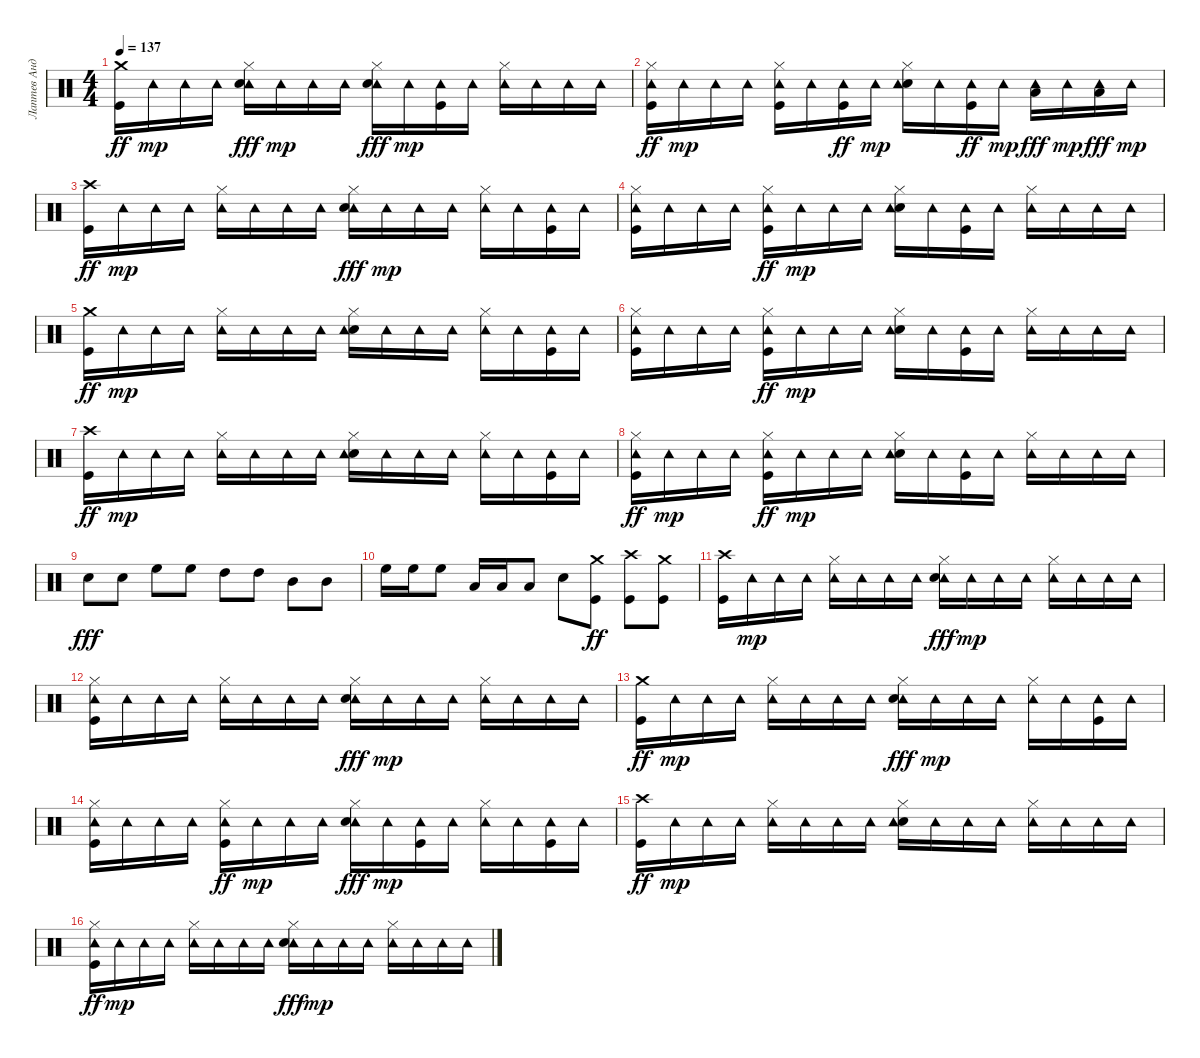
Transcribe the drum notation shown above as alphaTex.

\track ("Лаптев Андрей" "Лаптев Анд") {instrument percussion}
\staff {score}
\articulation defaults
\ts (4 4)
\tempo 137
\clef neutral
\ks c
("Crash medium (hit)" "Kick (hit)").16{dy ff} "Tambourine (hit)".16{dy mp} "Tambourine (hit)".16 "Tambourine (hit)".16 ("Tambourine (hit)" "Snare (hit) 2" "Hi-Hat (closed)").16{dy fff} "Tambourine (hit)".16{dy mp} "Tambourine (hit)".16 "Tambourine (hit)".16 ("Tambourine (hit)" "Snare (hit) 2" "Hi-Hat (closed)").16{dy fff} "Tambourine (hit)".16{dy mp} ("Kick (hit)" "Tambourine (hit)").16 "Tambourine (hit)".16 ("Tambourine (hit)" "Hi-Hat (closed)").16 "Tambourine (hit)".16 "Tambourine (hit)".16 "Tambourine (hit)".16 |
("Tambourine (hit)" "Kick (hit)" "Hi-Hat (closed)").16{dy ff} "Tambourine (hit)".16{dy mp} "Tambourine (hit)".16 "Tambourine (hit)".16 ("Kick (hit)" "Tambourine (hit)" "Hi-Hat (closed)").16 "Tambourine (hit)".16 ("Tambourine (hit)" "Kick (hit)").16{dy ff} "Tambourine (hit)".16{dy mp} ("Snare (hit) 2" "Tambourine (hit)" "Hi-Hat (closed)").16 "Tambourine (hit)".16 ("Tambourine (hit)" "Kick (hit)").16{dy ff} "Tambourine (hit)".16{dy mp} ("Tambourine (hit)" "Low Tom (hit)").16{dy fff} "Tambourine (hit)".16{dy mp} ("Tambourine (hit)" "Low Tom (hit)").16{dy fff} "Tambourine (hit)".16{dy mp} |
("Kick (hit)" "Crash high (hit)").16{dy ff} "Tambourine (hit)".16{dy mp} "Tambourine (hit)".16 "Tambourine (hit)".16 ("Tambourine (hit)" "Hi-Hat (closed)").16 "Tambourine (hit)".16 "Tambourine (hit)".16 "Tambourine (hit)".16 ("Tambourine (hit)" "Snare (hit) 2" "Hi-Hat (closed)").16{dy fff} "Tambourine (hit)".16{dy mp} "Tambourine (hit)".16 "Tambourine (hit)".16 ("Tambourine (hit)" "Hi-Hat (closed)").16 "Tambourine (hit)".16 ("Kick (hit)" "Tambourine (hit)").16 "Tambourine (hit)".16 |
("Kick (hit)" "Tambourine (hit)" "Hi-Hat (closed)").16 "Tambourine (hit)".16 "Tambourine (hit)".16 "Tambourine (hit)".16 ("Tambourine (hit)" "Kick (hit)" "Hi-Hat (closed)").16{dy ff} "Tambourine (hit)".16{dy mp} "Tambourine (hit)".16 "Tambourine (hit)".16 ("Snare (hit) 2" "Tambourine (hit)" "Hi-Hat (closed)").16 "Tambourine (hit)".16 ("Kick (hit)" "Tambourine (hit)").16 "Tambourine (hit)".16 ("Tambourine (hit)" "Hi-Hat (closed)").16 "Tambourine (hit)".16 "Tambourine (hit)".16 "Tambourine (hit)".16 |
("Crash medium (hit)" "Kick (hit)").16{dy ff} "Tambourine (hit)".16{dy mp} "Tambourine (hit)".16 "Tambourine (hit)".16 ("Hi-Hat (closed)" "Tambourine (hit)").16 "Tambourine (hit)".16 "Tambourine (hit)".16 "Tambourine (hit)".16 ("Snare (hit) 2" "Tambourine (hit)" "Hi-Hat (closed)").16 "Tambourine (hit)".16 "Tambourine (hit)".16 "Tambourine (hit)".16 ("Tambourine (hit)" "Hi-Hat (closed)").16 "Tambourine (hit)".16 ("Kick (hit)" "Tambourine (hit)").16 "Tambourine (hit)".16 |
("Kick (hit)" "Tambourine (hit)" "Hi-Hat (closed)").16 "Tambourine (hit)".16 "Tambourine (hit)".16 "Tambourine (hit)".16 ("Tambourine (hit)" "Kick (hit)" "Hi-Hat (closed)").16{dy ff} "Tambourine (hit)".16{dy mp} "Tambourine (hit)".16 "Tambourine (hit)".16 ("Snare (hit) 2" "Tambourine (hit)" "Hi-Hat (closed)").16 "Tambourine (hit)".16 ("Kick (hit)" "Tambourine (hit)").16 "Tambourine (hit)".16 ("Tambourine (hit)" "Hi-Hat (closed)").16 "Tambourine (hit)".16 "Tambourine (hit)".16 "Tambourine (hit)".16 |
("Crash high (hit)" "Kick (hit)").16{dy ff} "Tambourine (hit)".16{dy mp} "Tambourine (hit)".16 "Tambourine (hit)".16 ("Hi-Hat (closed)" "Tambourine (hit)").16 "Tambourine (hit)".16 "Tambourine (hit)".16 "Tambourine (hit)".16 ("Snare (hit) 2" "Tambourine (hit)" "Hi-Hat (closed)").16 "Tambourine (hit)".16 "Tambourine (hit)".16 "Tambourine (hit)".16 ("Tambourine (hit)" "Hi-Hat (closed)").16 "Tambourine (hit)".16 ("Kick (hit)" "Tambourine (hit)").16 "Tambourine (hit)".16 |
("Tambourine (hit)" "Kick (hit)" "Hi-Hat (closed)").16{dy ff} "Tambourine (hit)".16{dy mp} "Tambourine (hit)".16 "Tambourine (hit)".16 ("Tambourine (hit)" "Kick (hit)" "Hi-Hat (closed)").16{dy ff} "Tambourine (hit)".16{dy mp} "Tambourine (hit)".16 "Tambourine (hit)".16 ("Snare (hit) 2" "Tambourine (hit)" "Hi-Hat (closed)").16 "Tambourine (hit)".16 ("Kick (hit)" "Tambourine (hit)").16 "Tambourine (hit)".16 ("Tambourine (hit)" "Hi-Hat (closed)").16 "Tambourine (hit)".16 "Tambourine (hit)".16 "Tambourine (hit)".16 |
"Snare (hit) 2".8{dy fff} "Snare (hit) 2".8 "High Floor Tom (hit)".8 "High Floor Tom (hit)".8 "High Tom (hit)".8 "High Tom (hit)".8 "Mid Tom (hit)".8 "Mid Tom (hit)".8 |
"High Floor Tom (hit)".16 "High Floor Tom (hit)".16 "High Floor Tom (hit)".8 "Low Tom (hit)".16 "Low Tom (hit)".16 "Low Tom (hit)".8 "Snare (hit) 2".8 ("Crash medium (hit)" "Kick (hit)").8{dy ff} ("Kick (hit)" "Crash high (hit)").8 ("Kick (hit)" "Crash medium (hit)").8 |
("Kick (hit)" "Crash high (hit)").16 "Tambourine (hit)".16{dy mp} "Tambourine (hit)".16 "Tambourine (hit)".16 ("Tambourine (hit)" "Hi-Hat (closed)").16 "Tambourine (hit)".16 "Tambourine (hit)".16 "Tambourine (hit)".16 ("Tambourine (hit)" "Snare (hit) 2" "Hi-Hat (closed)").16{dy fff} "Tambourine (hit)".16{dy mp} "Tambourine (hit)".16 "Tambourine (hit)".16 ("Tambourine (hit)" "Hi-Hat (closed)").16 "Tambourine (hit)".16 "Tambourine (hit)".16 "Tambourine (hit)".16 |
("Kick (hit)" "Tambourine (hit)" "Hi-Hat (closed)").16 "Tambourine (hit)".16 "Tambourine (hit)".16 "Tambourine (hit)".16 ("Tambourine (hit)" "Hi-Hat (closed)").16 "Tambourine (hit)".16 "Tambourine (hit)".16 "Tambourine (hit)".16 ("Tambourine (hit)" "Snare (hit) 2" "Hi-Hat (closed)").16{dy fff} "Tambourine (hit)".16{dy mp} "Tambourine (hit)".16 "Tambourine (hit)".16 ("Tambourine (hit)" "Hi-Hat (closed)").16 "Tambourine (hit)".16 "Tambourine (hit)".16 "Tambourine (hit)".16 |
("Kick (hit)" "Crash medium (hit)").16{dy ff} "Tambourine (hit)".16{dy mp} "Tambourine (hit)".16 "Tambourine (hit)".16 ("Tambourine (hit)" "Hi-Hat (closed)").16 "Tambourine (hit)".16 "Tambourine (hit)".16 "Tambourine (hit)".16 ("Tambourine (hit)" "Snare (hit) 2" "Hi-Hat (closed)").16{dy fff} "Tambourine (hit)".16{dy mp} "Tambourine (hit)".16 "Tambourine (hit)".16 ("Tambourine (hit)" "Hi-Hat (closed)").16 "Tambourine (hit)".16 ("Kick (hit)" "Tambourine (hit)").16 "Tambourine (hit)".16 |
("Kick (hit)" "Tambourine (hit)" "Hi-Hat (closed)").16 "Tambourine (hit)".16 "Tambourine (hit)".16 "Tambourine (hit)".16 ("Tambourine (hit)" "Kick (hit)" "Hi-Hat (closed)").16{dy ff} "Tambourine (hit)".16{dy mp} "Tambourine (hit)".16 "Tambourine (hit)".16 ("Tambourine (hit)" "Snare (hit) 2" "Hi-Hat (closed)").16{dy fff} "Tambourine (hit)".16{dy mp} ("Kick (hit)" "Tambourine (hit)").16 "Tambourine (hit)".16 ("Tambourine (hit)" "Hi-Hat (closed)").16 "Tambourine (hit)".16 ("Kick (hit)" "Tambourine (hit)").16 "Tambourine (hit)".16 |
("Kick (hit)" "Crash high (hit)").16{dy ff} "Tambourine (hit)".16{dy mp} "Tambourine (hit)".16 "Tambourine (hit)".16 ("Tambourine (hit)" "Hi-Hat (closed)").16 "Tambourine (hit)".16 "Tambourine (hit)".16 "Tambourine (hit)".16 ("Snare (hit) 2" "Tambourine (hit)" "Hi-Hat (closed)").16 "Tambourine (hit)".16 "Tambourine (hit)".16 "Tambourine (hit)".16 ("Tambourine (hit)" "Hi-Hat (closed)").16 "Tambourine (hit)".16 "Tambourine (hit)".16 "Tambourine (hit)".16 |
("Tambourine (hit)" "Kick (hit)" "Hi-Hat (closed)").16{dy ff} "Tambourine (hit)".16{dy mp} "Tambourine (hit)".16 "Tambourine (hit)".16 ("Tambourine (hit)" "Hi-Hat (closed)").16 "Tambourine (hit)".16 "Tambourine (hit)".16 "Tambourine (hit)".16 ("Tambourine (hit)" "Snare (hit) 2" "Hi-Hat (closed)").16{dy fff} "Tambourine (hit)".16{dy mp} "Tambourine (hit)".16 "Tambourine (hit)".16 ("Tambourine (hit)" "Hi-Hat (closed)").16 "Tambourine (hit)".16 "Tambourine (hit)".16 "Tambourine (hit)".16
